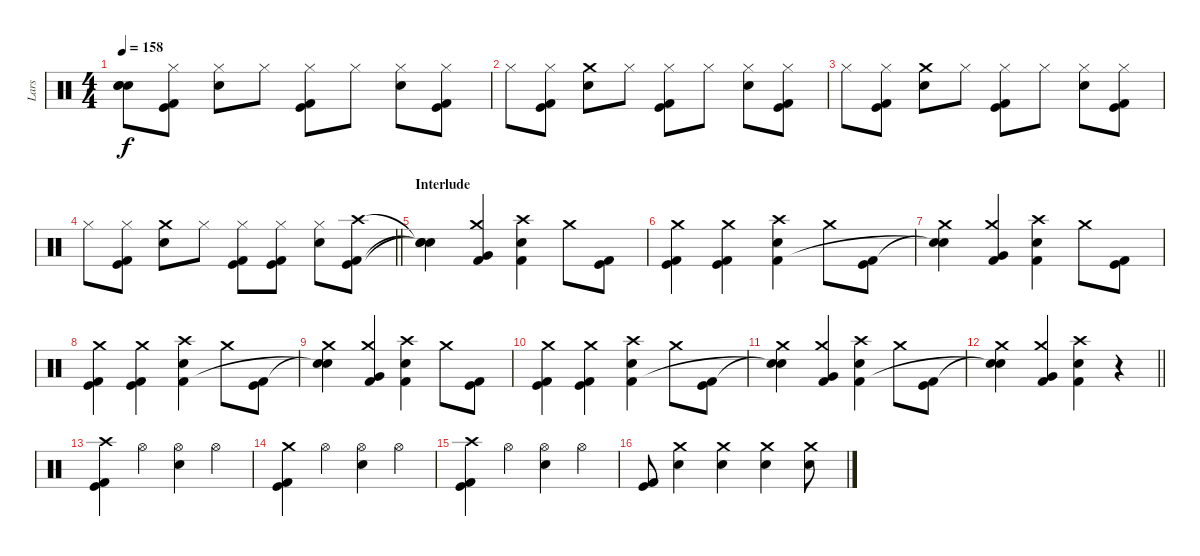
\track ("Lars" "Lars") {instrument percussion}
\staff {score}
\articulation defaults
\ts (4 4)
\section ("" "")
\tempo 158
\clef neutral
\ks c
("Snare (hit)"{t} "Snare (hit)"{t} "Snare (hit)"{t}).8{dy f} ("Hi-Hat (closed)" "Kick (hit)" "Kick (hit) 2").8 ("Hi-Hat (closed)" "Electric Snare (hit)").8 "Hi-Hat (closed)".8 ("Hi-Hat (closed)" "Kick (hit)" "Kick (hit) 2").8 "Hi-Hat (closed)".8 ("Hi-Hat (closed)" "Electric Snare (hit)").8 ("Hi-Hat (closed)" "Kick (hit)" "Kick (hit) 2").8 |
"Hi-Hat (closed)".8 ("Hi-Hat (closed)" "Kick (hit)" "Kick (hit) 2").8 ("Crash medium (hit)" "Electric Snare (hit)").8 "Hi-Hat (closed)".8 ("Hi-Hat (closed)" "Kick (hit)" "Kick (hit) 2").8 "Hi-Hat (closed)".8 ("Hi-Hat (closed)" "Electric Snare (hit)").8 ("Hi-Hat (closed)" "Kick (hit)" "Kick (hit) 2").8 |
"Hi-Hat (closed)".8 ("Hi-Hat (closed)" "Kick (hit)" "Kick (hit) 2").8 ("Crash medium (hit)" "Electric Snare (hit)").8 "Hi-Hat (closed)".8 ("Hi-Hat (closed)" "Kick (hit)" "Kick (hit) 2").8 "Hi-Hat (closed)".8 ("Hi-Hat (closed)" "Electric Snare (hit)").8 ("Hi-Hat (closed)" "Kick (hit)" "Kick (hit) 2").8 |
\barLineRight lightlight "Hi-Hat (closed)".8
("Hi-Hat (closed)" "Kick (hit)" "Kick (hit) 2").8 ("Crash medium (hit)" "Electric Snare (hit)").8 "Hi-Hat (closed)".8 ("Hi-Hat (closed)" "Kick (hit)" "Kick (hit) 2").8 ("Hi-Hat (closed)" "Kick (hit)" "Kick (hit) 2").8 ("Hi-Hat (closed)" "Electric Snare (hit)").8 ("Crash high (hit)" "Kick (hit)" "Kick (hit) 2").8 |
\section ("" "Interlude")
("Snare (hit)"{t} "Snare (hit)"{t} "Snare (hit)"{t}).4 ("Crash medium (hit)" "Kick (hit) 2" "Very Low Tom (hit)").4 ("Crash high (hit)" "Electric Snare (hit)" "Kick (hit) 2").4 "Crash medium (hit)".8 ("Kick (hit)" "Kick (hit) 2").8 |
("Crash medium (hit)" "Kick (hit)" "Kick (hit) 2").4 ("Crash medium (hit)" "Kick (hit)" "Kick (hit) 2").4 ("Crash high (hit)" "Electric Snare (hit)" "Kick (hit) 2").4 "Crash medium (hit)".8 ("Kick (hit)" "Kick (hit) 2").8 |
("Crash medium (hit)" "Snare (hit)"{t} "Snare (hit)"{t}).4 ("Crash medium (hit)" "Kick (hit) 2" "Very Low Tom (hit)").4 ("Crash high (hit)" "Electric Snare (hit)" "Kick (hit) 2").4 "Crash medium (hit)".8 ("Kick (hit)" "Kick (hit) 2").8 |
("Crash medium (hit)" "Kick (hit)" "Kick (hit) 2").4 ("Crash medium (hit)" "Kick (hit)" "Kick (hit) 2").4 ("Crash high (hit)" "Electric Snare (hit)" "Kick (hit) 2").4 "Crash medium (hit)".8 ("Kick (hit)" "Kick (hit) 2").8 |
("Crash medium (hit)" "Snare (hit)"{t} "Snare (hit)"{t}).4 ("Crash medium (hit)" "Kick (hit) 2" "Very Low Tom (hit)").4 ("Crash high (hit)" "Electric Snare (hit)" "Kick (hit) 2").4 "Crash medium (hit)".8 ("Kick (hit)" "Kick (hit) 2").8 |
("Crash medium (hit)" "Kick (hit)" "Kick (hit) 2").4 ("Crash medium (hit)" "Kick (hit)" "Kick (hit) 2").4 ("Crash high (hit)" "Electric Snare (hit)" "Kick (hit) 2").4 "Crash medium (hit)".8 ("Kick (hit)" "Kick (hit) 2").8 |
("Crash medium (hit)" "Snare (hit)"{t} "Snare (hit)"{t}).4 ("Crash medium (hit)" "Kick (hit) 2" "Very Low Tom (hit)").4 ("Crash high (hit)" "Electric Snare (hit)" "Kick (hit) 2").4 "Crash medium (hit)".8 ("Kick (hit)" "Kick (hit) 2").8 |
\barLineRight lightlight
("Crash medium (hit)" "Snare (hit)"{t} "Snare (hit)"{t}).4 ("Crash medium (hit)" "Kick (hit) 2" "Very Low Tom (hit)").4 ("Crash high (hit)" "Electric Snare (hit)" "Kick (hit) 2").4 r.4 |
\section ("" "")
("Crash high (hit)" "Kick (hit)" "Kick (hit) 2").4 "Hi-Hat (open)".4 ("Hi-Hat (open)" "Electric Snare (hit)").4 "Hi-Hat (open)".4 |
("Crash medium (hit)" "Kick (hit)" "Kick (hit) 2").4 "Hi-Hat (open)".4 ("Hi-Hat (open)" "Electric Snare (hit)").4 "Hi-Hat (open)".4 |
("Crash high (hit)" "Kick (hit)" "Kick (hit) 2").4 "Hi-Hat (open)".4 ("Hi-Hat (open)" "Electric Snare (hit)").4 "Hi-Hat (open)".4 |
("Kick (hit)" "Kick (hit) 2").8 ("Crash medium (hit)" "Electric Snare (hit)").4 ("Crash medium (hit)" "Electric Snare (hit)").4 ("Crash medium (hit)" "Electric Snare (hit)").4 ("Crash medium (hit)" "Electric Snare (hit)").8
